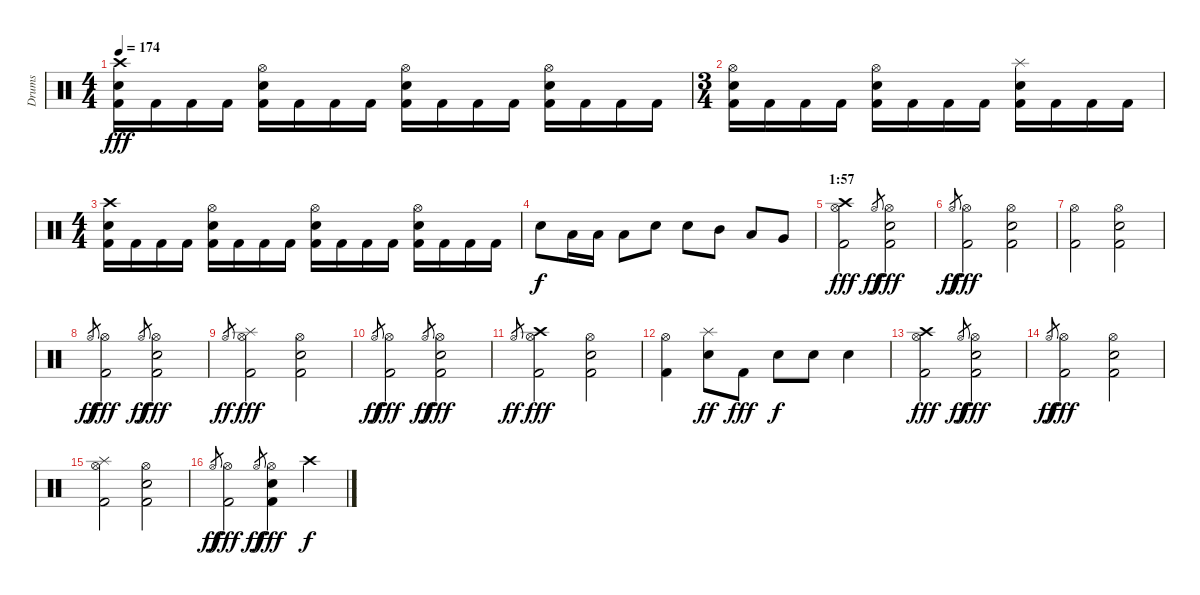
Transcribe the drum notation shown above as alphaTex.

\track ("Drums" "Drums") {instrument percussion}
\staff {score}
\articulation defaults
\ts (4 4)
\tempo 174
\clef neutral
\ks c
("Crash high (hit)" "Snare (hit) 2" "Kick (hit) 2").16{dy fff} "Kick (hit) 2".16 "Kick (hit) 2".16 "Kick (hit) 2".16 ("Hi-Hat (open)" "Snare (hit) 2" "Kick (hit) 2").16 "Kick (hit) 2".16 "Kick (hit) 2".16 "Kick (hit) 2".16 ("Hi-Hat (open)" "Snare (hit) 2" "Kick (hit) 2").16 "Kick (hit) 2".16 "Kick (hit) 2".16 "Kick (hit) 2".16 ("Hi-Hat (open)" "Snare (hit) 2" "Kick (hit) 2").16 "Kick (hit) 2".16 "Kick (hit) 2".16 "Kick (hit) 2".16 |
\ts (3 4)
("Hi-Hat (open)" "Snare (hit) 2" "Kick (hit) 2").16 "Kick (hit) 2".16 "Kick (hit) 2".16 "Kick (hit) 2".16 ("Hi-Hat (open)" "Snare (hit) 2" "Kick (hit) 2").16 "Kick (hit) 2".16 "Kick (hit) 2".16 "Kick (hit) 2".16 ("Splash (hit)" "Snare (hit) 2" "Kick (hit) 2").16 "Kick (hit) 2".16 "Kick (hit) 2".16 "Kick (hit) 2".16 |
\ts (4 4)
("Crash high (hit)" "Snare (hit) 2" "Kick (hit) 2").16 "Kick (hit) 2".16 "Kick (hit) 2".16 "Kick (hit) 2".16 ("Hi-Hat (open)" "Snare (hit) 2" "Kick (hit) 2").16 "Kick (hit) 2".16 "Kick (hit) 2".16 "Kick (hit) 2".16 ("Hi-Hat (open)" "Snare (hit) 2" "Kick (hit) 2").16 "Kick (hit) 2".16 "Kick (hit) 2".16 "Kick (hit) 2".16 ("Hi-Hat (open)" "Snare (hit) 2" "Kick (hit) 2").16 "Kick (hit) 2".16 "Kick (hit) 2".16 "Kick (hit) 2".16 |
"Snare (hit) 2".8{dy f} "Low Tom (hit)".16 "Low Tom (hit)".16 "Low Tom (hit)".8 "Snare (hit) 2".8 "Snare (hit) 2".8 "Mid Tom (hit)".8 "Low Tom (hit)".8 "Very Low Tom (hit)".8 |
\section ("" "1:57")
("Crash high (hit)" "Hi-Hat (open)" "Kick (hit) 2").2{dy fff} "Hi-Hat (open)".8{gr dy ff} ("Hi-Hat (open)" "Snare (hit) 2" "Kick (hit) 2").2{dy fff} |
"Hi-Hat (open)".8{gr dy ff} ("Hi-Hat (open)" "Kick (hit) 2").2{dy fff} ("Hi-Hat (open)" "Snare (hit) 2" "Kick (hit) 2").2 |
("Hi-Hat (open)" "Kick (hit) 2").2 ("Hi-Hat (open)" "Snare (hit) 2" "Kick (hit) 2").2 |
"Hi-Hat (open)".8{gr dy ff} ("Hi-Hat (open)" "Kick (hit) 2").2{dy fff} "Hi-Hat (open)".8{gr dy ff} ("Hi-Hat (open)" "Snare (hit) 2" "Kick (hit) 2").2{dy fff} |
"Hi-Hat (open)".8{gr dy ff} ("Splash (hit)" "Hi-Hat (open)" "Kick (hit) 2").2{dy fff} ("Hi-Hat (open)" "Snare (hit) 2" "Kick (hit) 2").2 |
"Hi-Hat (open)".8{gr dy ff} ("Hi-Hat (open)" "Kick (hit) 2").2{dy fff} "Hi-Hat (open)".8{gr dy ff} ("Hi-Hat (open)" "Snare (hit) 2" "Kick (hit) 2").2{dy fff} |
"Hi-Hat (open)".8{gr dy ff} ("Crash high (hit)" "Hi-Hat (open)" "Kick (hit) 2").2{dy fff} ("Hi-Hat (open)" "Snare (hit) 2" "Kick (hit) 2").2 |
("Hi-Hat (open)" "Kick (hit) 2").4 ("Splash (hit)" "Snare (hit) 2").8{dy ff} "Kick (hit) 2".8{dy fff} "Snare (hit) 2".8{dy f} "Snare (hit) 2".8 "Snare (hit) 2".4 |
("Crash high (hit)" "Hi-Hat (open)" "Kick (hit) 2").2{dy fff} "Hi-Hat (open)".8{gr dy ff} ("Hi-Hat (open)" "Snare (hit) 2" "Kick (hit) 2").2{dy fff} |
"Hi-Hat (open)".8{gr dy ff} ("Hi-Hat (open)" "Kick (hit) 2").2{dy fff} ("Hi-Hat (open)" "Snare (hit) 2" "Kick (hit) 2").2 |
("Splash (hit)" "Hi-Hat (open)" "Kick (hit) 2").2 ("Hi-Hat (open)" "Snare (hit) 2" "Kick (hit) 2").2 |
"Hi-Hat (open)".8{gr dy ff} ("Hi-Hat (open)" "Kick (hit) 2").2{dy fff} "Hi-Hat (open)".8{gr dy ff} ("Hi-Hat (open)" "Snare (hit) 2" "Kick (hit) 2").4{dy fff} "Crash high (hit)".4{dy f}
